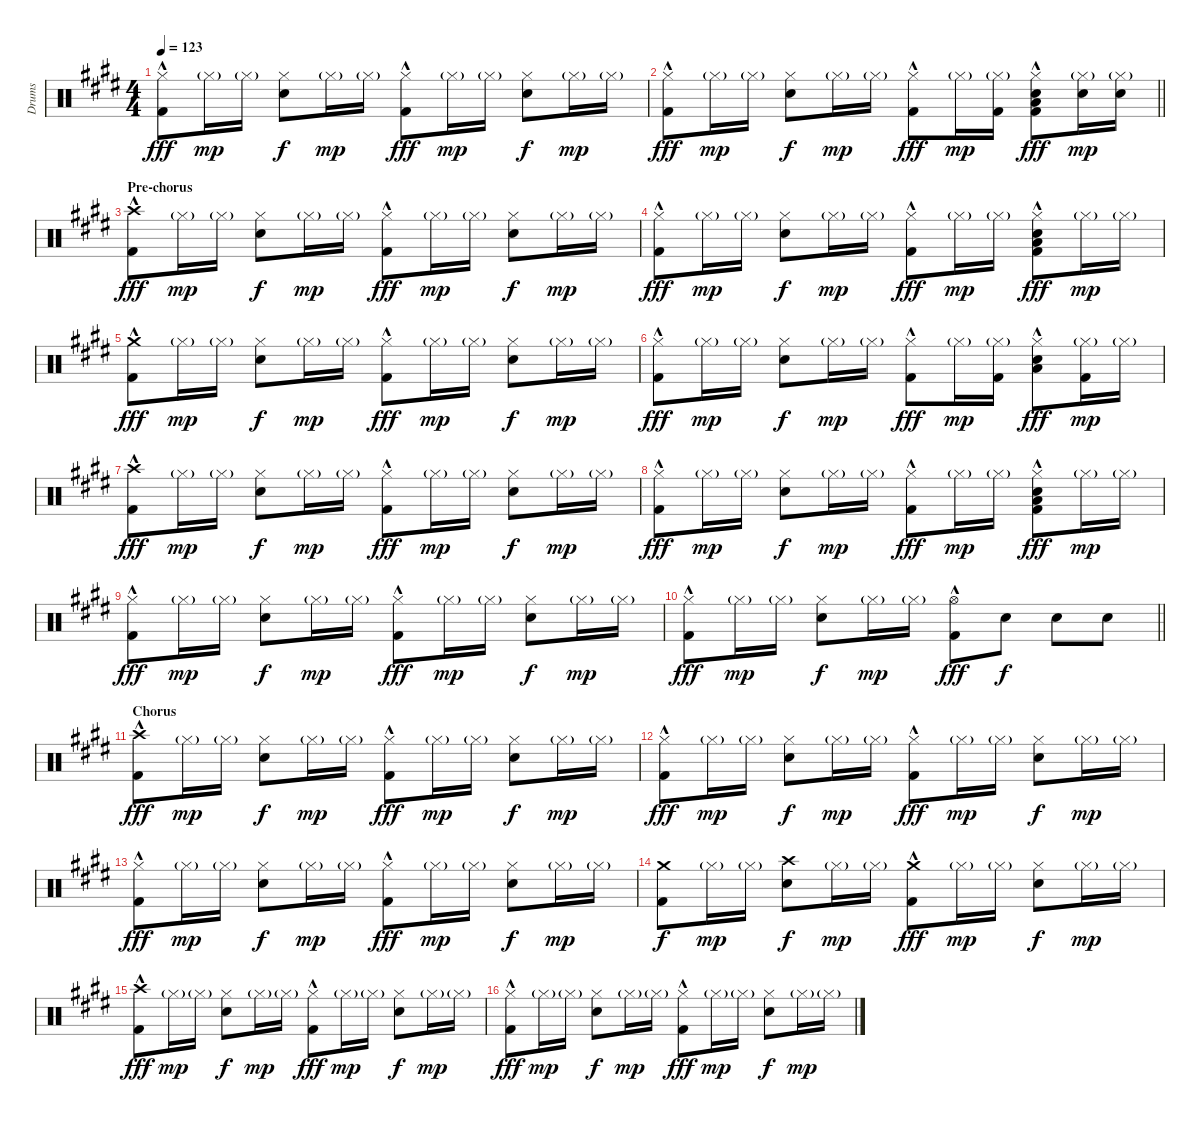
\track ("Drums" "Drums") {instrument percussion}
\staff {score}
\articulation defaults
\ts (4 4)
\tempo 123
\clef neutral
\ks c#minor
("Hi-Hat (closed)"{hac} "Kick (hit) 2").8{dy fff} "Hi-Hat (closed)"{g}.16{dy mp} "Hi-Hat (closed)"{g}.16 ("Hi-Hat (closed)" "Snare (hit) 2").8{dy f} "Hi-Hat (closed)"{g}.16{dy mp} "Hi-Hat (closed)"{g}.16 ("Hi-Hat (closed)"{hac} "Kick (hit) 2"{hac}).8{dy fff} "Hi-Hat (closed)"{g}.16{dy mp} "Hi-Hat (closed)"{g}.16 ("Hi-Hat (closed)" "Snare (hit) 2").8{dy f} "Hi-Hat (closed)"{g}.16{dy mp} "Hi-Hat (closed)"{g}.16 |
\barLineRight lightlight
("Hi-Hat (closed)"{hac} "Kick (hit) 2").8{dy fff} "Hi-Hat (closed)"{g}.16{dy mp} "Hi-Hat (closed)"{g}.16 ("Hi-Hat (closed)" "Snare (hit) 2").8{dy f} "Hi-Hat (closed)"{g}.16{dy mp} "Hi-Hat (closed)"{g}.16 ("Hi-Hat (closed)"{hac} "Kick (hit) 2"{hac}).8{dy fff} "Hi-Hat (closed)"{g}.16{dy mp} ("Hi-Hat (closed)"{g} "Kick (hit) 2").16 ("Hi-Hat (closed)"{hac} "Low Floor Tom (hit)"{hac} "Snare (hit) 2"{hac} "Kick (hit) 2"{hac}).8{dy fff} ("Hi-Hat (closed)"{g} "Snare (hit) 2").16{dy mp} ("Hi-Hat (closed)"{g} "Snare (hit) 2").16 |
\section ("" "Pre-chorus")
("Crash high (hit)" "Kick (hit) 2"{hac}).8{dy fff} "Hi-Hat (closed)"{g}.16{dy mp} "Hi-Hat (closed)"{g}.16 ("Hi-Hat (closed)" "Snare (hit) 2").8{dy f} "Hi-Hat (closed)"{g}.16{dy mp} "Hi-Hat (closed)"{g}.16 ("Hi-Hat (closed)"{hac} "Kick (hit) 2"{hac}).8{dy fff} "Hi-Hat (closed)"{g}.16{dy mp} "Hi-Hat (closed)"{g}.16 ("Hi-Hat (closed)" "Snare (hit) 2").8{dy f} "Hi-Hat (closed)"{g}.16{dy mp} "Hi-Hat (closed)"{g}.16 |
("Hi-Hat (closed)"{hac} "Kick (hit) 2").8{dy fff} "Hi-Hat (closed)"{g}.16{dy mp} "Hi-Hat (closed)"{g}.16 ("Hi-Hat (closed)" "Snare (hit) 2").8{dy f} "Hi-Hat (closed)"{g}.16{dy mp} "Hi-Hat (closed)"{g}.16 ("Hi-Hat (closed)"{hac} "Kick (hit) 2"{hac}).8{dy fff} "Hi-Hat (closed)"{g}.16{dy mp} "Hi-Hat (closed)"{g}.16 ("Hi-Hat (closed)" "Low Floor Tom (hit)"{hac} "Snare (hit) 2"{hac} "Kick (hit) 2"{hac}).8{dy fff} "Hi-Hat (closed)"{g}.16{dy mp} "Hi-Hat (closed)"{g}.16 |
("Crash medium (hit)" "Kick (hit) 2"{hac}).8{dy fff} "Hi-Hat (closed)"{g}.16{dy mp} "Hi-Hat (closed)"{g}.16 ("Hi-Hat (closed)" "Snare (hit) 2").8{dy f} "Hi-Hat (closed)"{g}.16{dy mp} "Hi-Hat (closed)"{g}.16 ("Hi-Hat (closed)"{hac} "Kick (hit) 2"{hac}).8{dy fff} "Hi-Hat (closed)"{g}.16{dy mp} "Hi-Hat (closed)"{g}.16 ("Hi-Hat (closed)" "Snare (hit) 2").8{dy f} "Hi-Hat (closed)"{g}.16{dy mp} "Hi-Hat (closed)"{g}.16 |
("Hi-Hat (closed)"{hac} "Kick (hit) 2").8{dy fff} "Hi-Hat (closed)"{g}.16{dy mp} "Hi-Hat (closed)"{g}.16 ("Hi-Hat (closed)" "Snare (hit) 2").8{dy f} "Hi-Hat (closed)"{g}.16{dy mp} "Hi-Hat (closed)"{g}.16 ("Hi-Hat (closed)"{hac} "Kick (hit) 2"{hac}).8{dy fff} "Hi-Hat (closed)"{g}.16{dy mp} ("Hi-Hat (closed)"{g} "Kick (hit) 2").16 ("Hi-Hat (closed)" "Low Floor Tom (hit)"{hac} "Snare (hit) 2"{hac}).8{dy fff} ("Hi-Hat (closed)"{g} "Kick (hit) 2").16{dy mp} "Hi-Hat (closed)"{g}.16 |
("Crash high (hit)" "Kick (hit) 2"{hac}).8{dy fff} "Hi-Hat (closed)"{g}.16{dy mp} "Hi-Hat (closed)"{g}.16 ("Hi-Hat (closed)" "Snare (hit) 2").8{dy f} "Hi-Hat (closed)"{g}.16{dy mp} "Hi-Hat (closed)"{g}.16 ("Hi-Hat (closed)"{hac} "Kick (hit) 2"{hac}).8{dy fff} "Hi-Hat (closed)"{g}.16{dy mp} "Hi-Hat (closed)"{g}.16 ("Hi-Hat (closed)" "Snare (hit) 2").8{dy f} "Hi-Hat (closed)"{g}.16{dy mp} "Hi-Hat (closed)"{g}.16 |
("Hi-Hat (closed)"{hac} "Kick (hit) 2").8{dy fff} "Hi-Hat (closed)"{g}.16{dy mp} "Hi-Hat (closed)"{g}.16 ("Hi-Hat (closed)" "Snare (hit) 2").8{dy f} "Hi-Hat (closed)"{g}.16{dy mp} "Hi-Hat (closed)"{g}.16 ("Hi-Hat (closed)"{hac} "Kick (hit) 2"{hac}).8{dy fff} "Hi-Hat (closed)"{g}.16{dy mp} "Hi-Hat (closed)"{g}.16 ("Hi-Hat (closed)" "Low Floor Tom (hit)"{hac} "Snare (hit) 2"{hac} "Kick (hit) 2"{hac}).8{dy fff} "Hi-Hat (closed)"{g}.16{dy mp} "Hi-Hat (closed)"{g}.16 |
("Hi-Hat (closed)"{hac} "Kick (hit) 2").8{dy fff} "Hi-Hat (closed)"{g}.16{dy mp} "Hi-Hat (closed)"{g}.16 ("Hi-Hat (closed)" "Snare (hit) 2").8{dy f} "Hi-Hat (closed)"{g}.16{dy mp} "Hi-Hat (closed)"{g}.16 ("Hi-Hat (closed)"{hac} "Kick (hit) 2"{hac}).8{dy fff} "Hi-Hat (closed)"{g}.16{dy mp} "Hi-Hat (closed)"{g}.16 ("Hi-Hat (closed)" "Snare (hit) 2").8{dy f} "Hi-Hat (closed)"{g}.16{dy mp} "Hi-Hat (closed)"{g}.16 |
\barLineRight lightlight
("Hi-Hat (closed)"{hac} "Kick (hit) 2").8{dy fff} "Hi-Hat (closed)"{g}.16{dy mp} "Hi-Hat (closed)"{g}.16 ("Hi-Hat (closed)" "Snare (hit) 2").8{dy f} "Hi-Hat (closed)"{g}.16{dy mp} "Hi-Hat (closed)"{g}.16 ("Hi-Hat (open)"{hac} "Kick (hit) 2"{hac}).8{dy fff} "Snare (hit) 2".8{dy f} "Snare (hit) 2".8 "Snare (hit) 2".8 |
\section ("" "Chorus")
("Crash high (hit)" "Kick (hit) 2"{hac}).8{dy fff} "Hi-Hat (closed)"{g}.16{dy mp} "Hi-Hat (closed)"{g}.16 ("Hi-Hat (closed)" "Snare (hit) 2").8{dy f} "Hi-Hat (closed)"{g}.16{dy mp} "Hi-Hat (closed)"{g}.16 ("Hi-Hat (closed)"{hac} "Kick (hit) 2"{hac}).8{dy fff} "Hi-Hat (closed)"{g}.16{dy mp} "Hi-Hat (closed)"{g}.16 ("Hi-Hat (closed)" "Snare (hit) 2").8{dy f} "Hi-Hat (closed)"{g}.16{dy mp} "Hi-Hat (closed)"{g}.16 |
("Hi-Hat (closed)"{hac} "Kick (hit) 2").8{dy fff} "Hi-Hat (closed)"{g}.16{dy mp} "Hi-Hat (closed)"{g}.16 ("Hi-Hat (closed)" "Snare (hit) 2").8{dy f} "Hi-Hat (closed)"{g}.16{dy mp} "Hi-Hat (closed)"{g}.16 ("Hi-Hat (closed)"{hac} "Kick (hit) 2"{hac}).8{dy fff} "Hi-Hat (closed)"{g}.16{dy mp} "Hi-Hat (closed)"{g}.16 ("Hi-Hat (closed)" "Snare (hit) 2").8{dy f} "Hi-Hat (closed)"{g}.16{dy mp} "Hi-Hat (closed)"{g}.16 |
("Hi-Hat (closed)"{hac} "Kick (hit) 2").8{dy fff} "Hi-Hat (closed)"{g}.16{dy mp} "Hi-Hat (closed)"{g}.16 ("Hi-Hat (closed)" "Snare (hit) 2").8{dy f} "Hi-Hat (closed)"{g}.16{dy mp} "Hi-Hat (closed)"{g}.16 ("Hi-Hat (closed)"{hac} "Kick (hit) 2"{hac}).8{dy fff} "Hi-Hat (closed)"{g}.16{dy mp} "Hi-Hat (closed)"{g}.16 ("Hi-Hat (closed)" "Snare (hit) 2").8{dy f} "Hi-Hat (closed)"{g}.16{dy mp} "Hi-Hat (closed)"{g}.16 |
("Crash medium (hit)" "Kick (hit) 2").8{dy f} "Hi-Hat (closed)"{g}.16{dy mp} "Hi-Hat (closed)"{g}.16 ("Crash high (hit)" "Snare (hit) 2").8{dy f} "Hi-Hat (closed)"{g}.16{dy mp} "Hi-Hat (closed)"{g}.16 ("Crash medium (hit)" "Kick (hit) 2"{hac}).8{dy fff} "Hi-Hat (closed)"{g}.16{dy mp} "Hi-Hat (closed)"{g}.16 ("Hi-Hat (closed)" "Snare (hit) 2").8{dy f} "Hi-Hat (closed)"{g}.16{dy mp} "Hi-Hat (closed)"{g}.16 |
("Crash high (hit)" "Kick (hit) 2"{hac}).8{dy fff} "Hi-Hat (closed)"{g}.16{dy mp} "Hi-Hat (closed)"{g}.16 ("Hi-Hat (closed)" "Snare (hit) 2").8{dy f} "Hi-Hat (closed)"{g}.16{dy mp} "Hi-Hat (closed)"{g}.16 ("Hi-Hat (closed)"{hac} "Kick (hit) 2"{hac}).8{dy fff} "Hi-Hat (closed)"{g}.16{dy mp} "Hi-Hat (closed)"{g}.16 ("Hi-Hat (closed)" "Snare (hit) 2").8{dy f} "Hi-Hat (closed)"{g}.16{dy mp} "Hi-Hat (closed)"{g}.16 |
("Hi-Hat (closed)"{hac} "Kick (hit) 2").8{dy fff} "Hi-Hat (closed)"{g}.16{dy mp} "Hi-Hat (closed)"{g}.16 ("Hi-Hat (closed)" "Snare (hit) 2").8{dy f} "Hi-Hat (closed)"{g}.16{dy mp} "Hi-Hat (closed)"{g}.16 ("Hi-Hat (closed)"{hac} "Kick (hit) 2"{hac}).8{dy fff} "Hi-Hat (closed)"{g}.16{dy mp} "Hi-Hat (closed)"{g}.16 ("Hi-Hat (closed)" "Snare (hit) 2").8{dy f} "Hi-Hat (closed)"{g}.16{dy mp} "Hi-Hat (closed)"{g}.16
